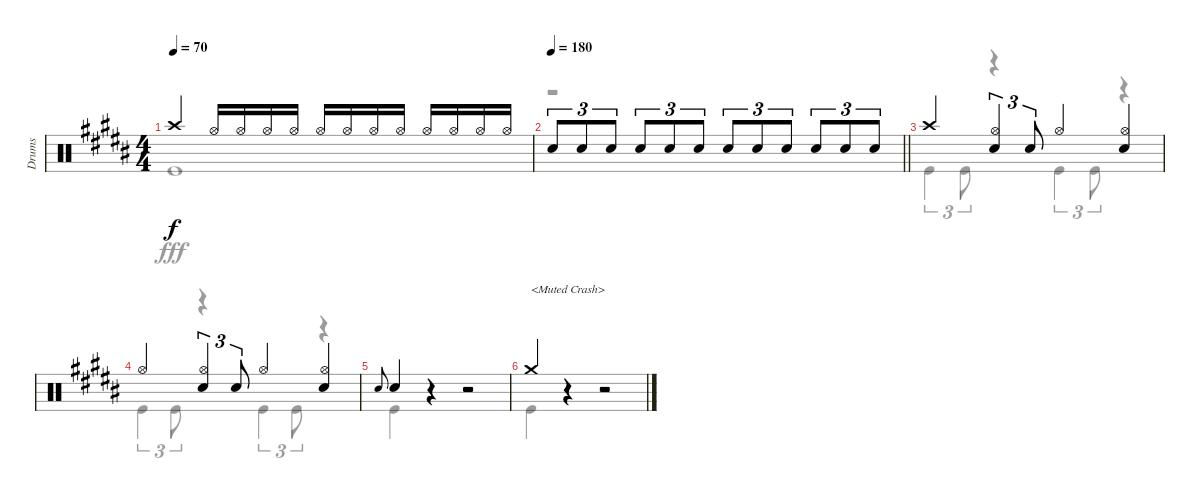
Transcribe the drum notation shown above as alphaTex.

\track ("Drums" "Drums") {instrument percussion}
\staff {score}
\articulation defaults
\voice
\ts (4 4)
\tempo 70
\clef neutral
\ks b "Crash high (hit)".4{dy f} "Hi-Hat (open)".16 "Hi-Hat (open)".16 "Hi-Hat (open)".16 "Hi-Hat (open)".16 "Hi-Hat (open)".16 "Hi-Hat (open)".16 "Hi-Hat (open)".16 "Hi-Hat (open)".16 "Hi-Hat (open)".16 "Hi-Hat (open)".16 "Hi-Hat (open)".16 "Hi-Hat (open)".16
|
\tempo 180
\barLineRight lightlight "Snare (hit) 2".8{tu (3 2)} "Snare (hit) 2".8{tu (3 2)} "Snare (hit) 2".8{tu (3 2)} "Snare (hit) 2".8{tu (3 2)} "Snare (hit) 2".8{tu (3 2)} "Snare (hit) 2".8{tu (3 2)} "Snare (hit) 2".8{tu (3 2)} "Snare (hit) 2".8{tu (3 2)} "Snare (hit) 2".8{tu (3 2)} "Snare (hit) 2".8{tu (3 2)} "Snare (hit) 2".8{tu (3 2)} "Snare (hit) 2".8{tu (3 2)}
|
"Crash high (hit)".4 ("Hi-Hat (open)" "Snare (hit) 2").4{tu (3 2)} "Snare (hit) 2".8{tu (3 2)} "Hi-Hat (open)".4 ("Hi-Hat (open)" "Snare (hit) 2").4 |
"Hi-Hat (open)".4 ("Hi-Hat (open)" "Snare (hit) 2").4{tu (3 2)} "Snare (hit) 2".8{tu (3 2)} "Hi-Hat (open)".4 ("Hi-Hat (open)" "Snare (hit) 2").4 |
"Snare (hit) 2".8{gr onbeat} "Snare (hit) 2".4 r.4 r.2 |
"Crash medium (hit)".4{txt "<Muted Crash>"} r.4 r.2
\voice
\clef neutral
\ottava regular
\simile none
\ks b "Kick (hit)".1{dy fff}
|
\barLineRight lightlight
r.1 |
"Kick (hit)".4{tu (3 2)} "Kick (hit)".8{tu (3 2)} r.4 "Kick (hit)".4{tu (3 2)} "Kick (hit)".8{tu (3 2)} r.4 |
"Kick (hit)".4{tu (3 2)} "Kick (hit)".8{tu (3 2)} r.4 "Kick (hit)".4{tu (3 2)} "Kick (hit)".8{tu (3 2)} r.4 |
"Kick (hit)".4 r.4 r.2 |
"Kick (hit)".4 r.4 r.2
